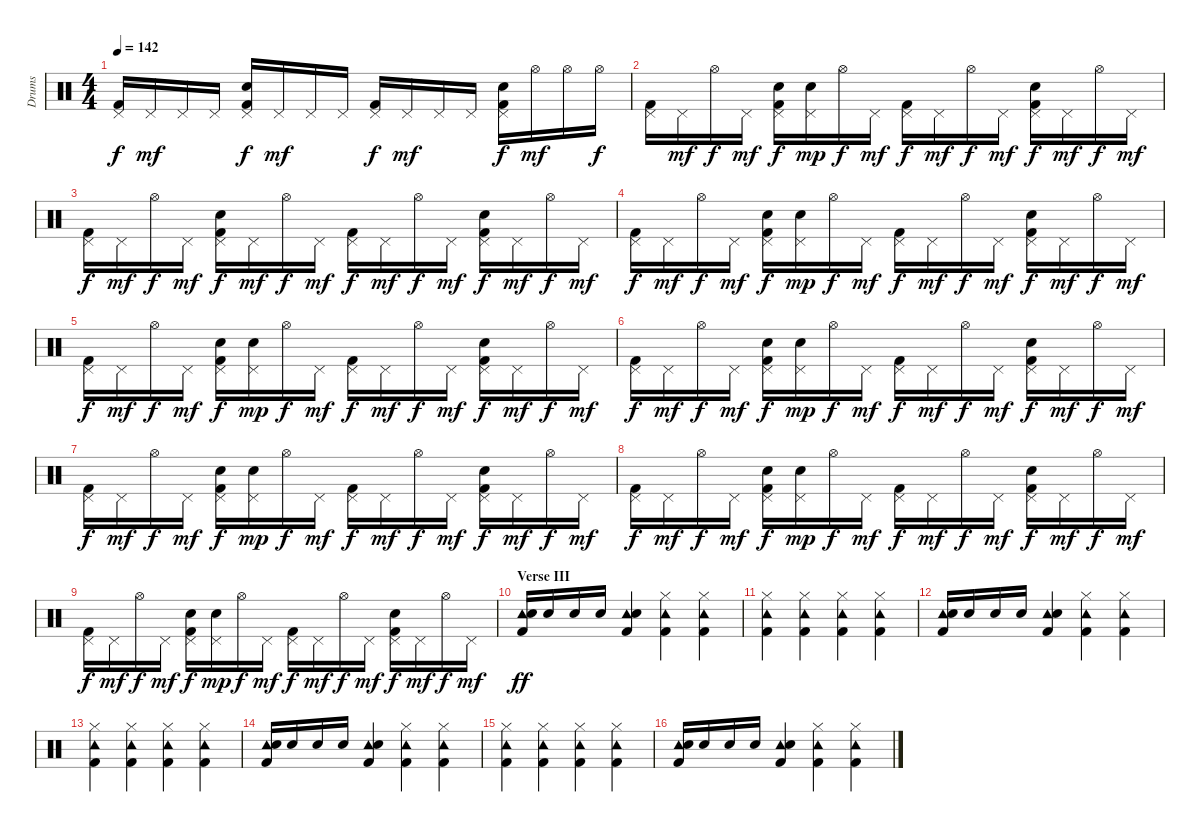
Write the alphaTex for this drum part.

\track ("Drums" "Drums") {instrument percussion}
\staff {score}
\articulation defaults
\ts (4 4)
\tempo 142
\clef neutral
\ks c
("Pedal Hi-Hat (hit)" "Kick (hit) 2").16{dy f} "Pedal Hi-Hat (hit)".16{dy mf} "Pedal Hi-Hat (hit)".16 "Pedal Hi-Hat (hit)".16 ("Pedal Hi-Hat (hit)" "Snare (hit) 2" "Kick (hit) 2").16{dy f} "Pedal Hi-Hat (hit)".16{dy mf} "Pedal Hi-Hat (hit)".16 "Pedal Hi-Hat (hit)".16 ("Pedal Hi-Hat (hit)" "Kick (hit) 2").16{dy f} "Pedal Hi-Hat (hit)".16{dy mf} "Pedal Hi-Hat (hit)".16 "Pedal Hi-Hat (hit)".16 ("Pedal Hi-Hat (hit)" "Snare (hit) 2" "Kick (hit) 2").16{dy f} "Hi-Hat (open)".16{dy mf} "Hi-Hat (open)".16 "Hi-Hat (open)".16{dy f} |
("Pedal Hi-Hat (hit)" "Kick (hit) 2").16 "Pedal Hi-Hat (hit)".16{dy mf} "Hi-Hat (open)".16{dy f} "Pedal Hi-Hat (hit)".16{dy mf} ("Pedal Hi-Hat (hit)" "Snare (hit) 2" "Kick (hit) 2").16{dy f} ("Pedal Hi-Hat (hit)" "Snare (hit) 2").16{dy mp} "Hi-Hat (open)".16{dy f} "Pedal Hi-Hat (hit)".16{dy mf} ("Pedal Hi-Hat (hit)" "Kick (hit) 2").16{dy f} "Pedal Hi-Hat (hit)".16{dy mf} "Hi-Hat (open)".16{dy f} "Pedal Hi-Hat (hit)".16{dy mf} ("Pedal Hi-Hat (hit)" "Snare (hit) 2" "Kick (hit) 2").16{dy f} "Pedal Hi-Hat (hit)".16{dy mf} "Hi-Hat (open)".16{dy f} "Pedal Hi-Hat (hit)".16{dy mf} |
("Pedal Hi-Hat (hit)" "Kick (hit) 2").16{dy f} "Pedal Hi-Hat (hit)".16{dy mf} "Hi-Hat (open)".16{dy f} "Pedal Hi-Hat (hit)".16{dy mf} ("Pedal Hi-Hat (hit)" "Snare (hit) 2" "Kick (hit) 2").16{dy f} "Pedal Hi-Hat (hit)".16{dy mf} "Hi-Hat (open)".16{dy f} "Pedal Hi-Hat (hit)".16{dy mf} ("Pedal Hi-Hat (hit)" "Kick (hit) 2").16{dy f} "Pedal Hi-Hat (hit)".16{dy mf} "Hi-Hat (open)".16{dy f} "Pedal Hi-Hat (hit)".16{dy mf} ("Pedal Hi-Hat (hit)" "Snare (hit) 2" "Kick (hit) 2").16{dy f} "Pedal Hi-Hat (hit)".16{dy mf} "Hi-Hat (open)".16{dy f} "Pedal Hi-Hat (hit)".16{dy mf} |
("Pedal Hi-Hat (hit)" "Kick (hit) 2").16{dy f} "Pedal Hi-Hat (hit)".16{dy mf} "Hi-Hat (open)".16{dy f} "Pedal Hi-Hat (hit)".16{dy mf} ("Pedal Hi-Hat (hit)" "Snare (hit) 2" "Kick (hit) 2").16{dy f} ("Pedal Hi-Hat (hit)" "Snare (hit) 2").16{dy mp} "Hi-Hat (open)".16{dy f} "Pedal Hi-Hat (hit)".16{dy mf} ("Pedal Hi-Hat (hit)" "Kick (hit) 2").16{dy f} "Pedal Hi-Hat (hit)".16{dy mf} "Hi-Hat (open)".16{dy f} "Pedal Hi-Hat (hit)".16{dy mf} ("Pedal Hi-Hat (hit)" "Snare (hit) 2" "Kick (hit) 2").16{dy f} "Pedal Hi-Hat (hit)".16{dy mf} "Hi-Hat (open)".16{dy f} "Pedal Hi-Hat (hit)".16{dy mf} |
("Pedal Hi-Hat (hit)" "Kick (hit) 2").16{dy f} "Pedal Hi-Hat (hit)".16{dy mf} "Hi-Hat (open)".16{dy f} "Pedal Hi-Hat (hit)".16{dy mf} ("Pedal Hi-Hat (hit)" "Snare (hit) 2" "Kick (hit) 2").16{dy f} ("Pedal Hi-Hat (hit)" "Snare (hit) 2").16{dy mp} "Hi-Hat (open)".16{dy f} "Pedal Hi-Hat (hit)".16{dy mf} ("Pedal Hi-Hat (hit)" "Kick (hit) 2").16{dy f} "Pedal Hi-Hat (hit)".16{dy mf} "Hi-Hat (open)".16{dy f} "Pedal Hi-Hat (hit)".16{dy mf} ("Pedal Hi-Hat (hit)" "Snare (hit) 2" "Kick (hit) 2").16{dy f} "Pedal Hi-Hat (hit)".16{dy mf} "Hi-Hat (open)".16{dy f} "Pedal Hi-Hat (hit)".16{dy mf} |
("Pedal Hi-Hat (hit)" "Kick (hit) 2").16{dy f} "Pedal Hi-Hat (hit)".16{dy mf} "Hi-Hat (open)".16{dy f} "Pedal Hi-Hat (hit)".16{dy mf} ("Pedal Hi-Hat (hit)" "Snare (hit) 2" "Kick (hit) 2").16{dy f} ("Pedal Hi-Hat (hit)" "Snare (hit) 2").16{dy mp} "Hi-Hat (open)".16{dy f} "Pedal Hi-Hat (hit)".16{dy mf} ("Pedal Hi-Hat (hit)" "Kick (hit) 2").16{dy f} "Pedal Hi-Hat (hit)".16{dy mf} "Hi-Hat (open)".16{dy f} "Pedal Hi-Hat (hit)".16{dy mf} ("Pedal Hi-Hat (hit)" "Snare (hit) 2" "Kick (hit) 2").16{dy f} "Pedal Hi-Hat (hit)".16{dy mf} "Hi-Hat (open)".16{dy f} "Pedal Hi-Hat (hit)".16{dy mf} |
("Pedal Hi-Hat (hit)" "Kick (hit) 2").16{dy f} "Pedal Hi-Hat (hit)".16{dy mf} "Hi-Hat (open)".16{dy f} "Pedal Hi-Hat (hit)".16{dy mf} ("Pedal Hi-Hat (hit)" "Snare (hit) 2" "Kick (hit) 2").16{dy f} ("Pedal Hi-Hat (hit)" "Snare (hit) 2").16{dy mp} "Hi-Hat (open)".16{dy f} "Pedal Hi-Hat (hit)".16{dy mf} ("Pedal Hi-Hat (hit)" "Kick (hit) 2").16{dy f} "Pedal Hi-Hat (hit)".16{dy mf} "Hi-Hat (open)".16{dy f} "Pedal Hi-Hat (hit)".16{dy mf} ("Pedal Hi-Hat (hit)" "Snare (hit) 2" "Kick (hit) 2").16{dy f} "Pedal Hi-Hat (hit)".16{dy mf} "Hi-Hat (open)".16{dy f} "Pedal Hi-Hat (hit)".16{dy mf} |
("Pedal Hi-Hat (hit)" "Kick (hit) 2").16{dy f} "Pedal Hi-Hat (hit)".16{dy mf} "Hi-Hat (open)".16{dy f} "Pedal Hi-Hat (hit)".16{dy mf} ("Pedal Hi-Hat (hit)" "Snare (hit) 2" "Kick (hit) 2").16{dy f} ("Pedal Hi-Hat (hit)" "Snare (hit) 2").16{dy mp} "Hi-Hat (open)".16{dy f} "Pedal Hi-Hat (hit)".16{dy mf} ("Pedal Hi-Hat (hit)" "Kick (hit) 2").16{dy f} "Pedal Hi-Hat (hit)".16{dy mf} "Hi-Hat (open)".16{dy f} "Pedal Hi-Hat (hit)".16{dy mf} ("Pedal Hi-Hat (hit)" "Snare (hit) 2" "Kick (hit) 2").16{dy f} "Pedal Hi-Hat (hit)".16{dy mf} "Hi-Hat (open)".16{dy f} "Pedal Hi-Hat (hit)".16{dy mf} |
("Pedal Hi-Hat (hit)" "Kick (hit) 2").16{dy f} "Pedal Hi-Hat (hit)".16{dy mf} "Hi-Hat (open)".16{dy f} "Pedal Hi-Hat (hit)".16{dy mf} ("Pedal Hi-Hat (hit)" "Snare (hit) 2" "Kick (hit) 2").16{dy f} ("Pedal Hi-Hat (hit)" "Snare (hit) 2").16{dy mp} "Hi-Hat (open)".16{dy f} "Pedal Hi-Hat (hit)".16{dy mf} ("Pedal Hi-Hat (hit)" "Kick (hit) 2").16{dy f} "Pedal Hi-Hat (hit)".16{dy mf} "Hi-Hat (open)".16{dy f} "Pedal Hi-Hat (hit)".16{dy mf} ("Pedal Hi-Hat (hit)" "Snare (hit) 2" "Kick (hit) 2").16{dy f} "Pedal Hi-Hat (hit)".16{dy mf} "Hi-Hat (open)".16{dy f} "Pedal Hi-Hat (hit)".16{dy mf} |
\section ("" "Verse III")
("Tambourine (hit)" "Snare (hit) 2" "Kick (hit) 2").16{dy ff} "Snare (hit) 2".16 "Snare (hit) 2".16 "Snare (hit) 2".16 ("Tambourine (hit)" "Snare (hit) 2" "Kick (hit) 2").4 ("Tambourine (hit)" "Hi-Hat (closed)" "Kick (hit) 2").4 ("Tambourine (hit)" "Hi-Hat (closed)" "Kick (hit) 2").4 |
("Tambourine (hit)" "Hi-Hat (closed)" "Kick (hit) 2").4 ("Tambourine (hit)" "Hi-Hat (closed)" "Kick (hit) 2").4 ("Tambourine (hit)" "Hi-Hat (closed)" "Kick (hit) 2").4 ("Tambourine (hit)" "Hi-Hat (closed)" "Kick (hit) 2").4 |
("Tambourine (hit)" "Snare (hit) 2" "Kick (hit) 2").16 "Snare (hit) 2".16 "Snare (hit) 2".16 "Snare (hit) 2".16 ("Tambourine (hit)" "Snare (hit) 2" "Kick (hit) 2").4 ("Tambourine (hit)" "Hi-Hat (closed)" "Kick (hit) 2").4 ("Tambourine (hit)" "Hi-Hat (closed)" "Kick (hit) 2").4 |
("Tambourine (hit)" "Hi-Hat (closed)" "Kick (hit) 2").4 ("Tambourine (hit)" "Hi-Hat (closed)" "Kick (hit) 2").4 ("Tambourine (hit)" "Hi-Hat (closed)" "Kick (hit) 2").4 ("Tambourine (hit)" "Hi-Hat (closed)" "Kick (hit) 2").4 |
("Tambourine (hit)" "Snare (hit) 2" "Kick (hit) 2").16 "Snare (hit) 2".16 "Snare (hit) 2".16 "Snare (hit) 2".16 ("Tambourine (hit)" "Snare (hit) 2" "Kick (hit) 2").4 ("Tambourine (hit)" "Hi-Hat (closed)" "Kick (hit) 2").4 ("Tambourine (hit)" "Hi-Hat (closed)" "Kick (hit) 2").4 |
("Tambourine (hit)" "Hi-Hat (closed)" "Kick (hit) 2").4 ("Tambourine (hit)" "Hi-Hat (closed)" "Kick (hit) 2").4 ("Tambourine (hit)" "Hi-Hat (closed)" "Kick (hit) 2").4 ("Tambourine (hit)" "Hi-Hat (closed)" "Kick (hit) 2").4 |
("Tambourine (hit)" "Snare (hit) 2" "Kick (hit) 2").16 "Snare (hit) 2".16 "Snare (hit) 2".16 "Snare (hit) 2".16 ("Tambourine (hit)" "Snare (hit) 2" "Kick (hit) 2").4 ("Tambourine (hit)" "Hi-Hat (closed)" "Kick (hit) 2").4 ("Tambourine (hit)" "Hi-Hat (closed)" "Kick (hit) 2").4
